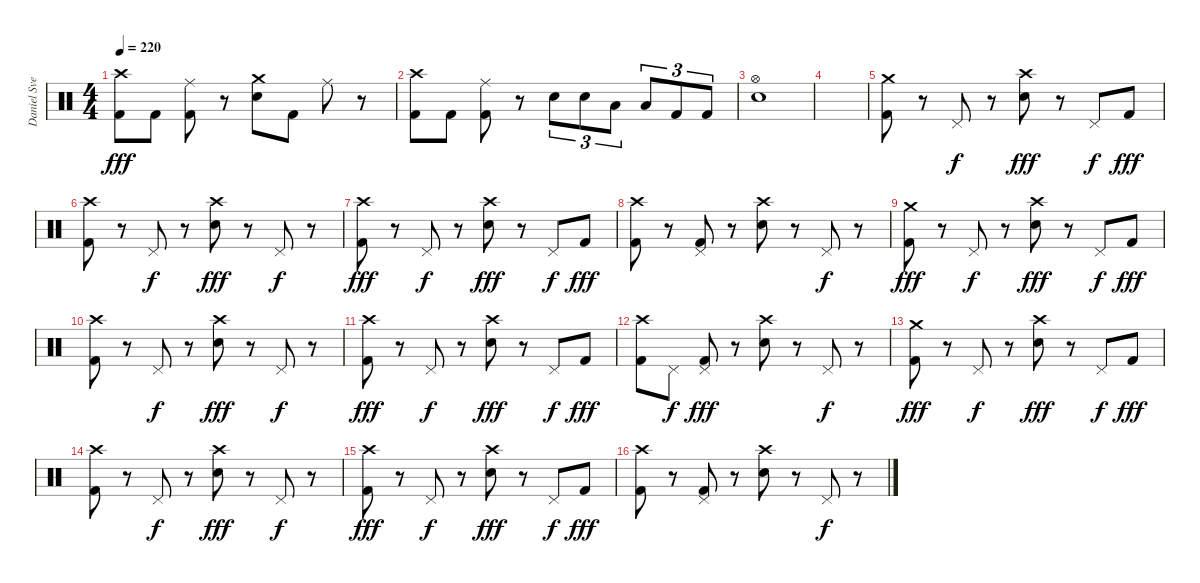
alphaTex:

\track ("Daniel Svensson" "Daniel Sve") {instrument percussion}
\staff {score}
\articulation defaults
\ts (4 4)
\tempo 220
\clef neutral
\ks c
("Crash high (hit)" "Kick (hit) 2").8{dy fff} "Kick (hit) 2".8 ("Ride (middle)" "Kick (hit) 2").8 r.8 ("Crash medium (hit)" "Electric Snare (hit)").8 "Kick (hit) 2".8 "Ride (middle)".8 r.8 |
("Crash high (hit)" "Kick (hit) 2").8 "Kick (hit) 2".8 ("Ride (middle)" "Kick (hit) 2").8 r.8 "Electric Snare (hit)".8{tu (3 2)} "Electric Snare (hit)".8{tu (3 2)} "Low Floor Tom (hit)".8{tu (3 2)} "Low Floor Tom (hit)".8{tu (3 2)} "Kick (hit) 2".8{tu (3 2)} "Kick (hit) 2".8{tu (3 2)} |
("Hi-Hat (open)" "Electric Snare (hit)").1 |
|
("Crash medium (hit)" "Kick (hit) 2").8 r.8 "Pedal Hi-Hat (hit)".8{dy f} r.8 ("Crash high (hit)" "Electric Snare (hit)").8{dy fff} r.8 "Pedal Hi-Hat (hit)".8{dy f} "Kick (hit) 2".8{dy fff} |
("Crash high (hit)" "Kick (hit) 2").8 r.8 "Pedal Hi-Hat (hit)".8{dy f} r.8 ("Crash high (hit)" "Electric Snare (hit)").8{dy fff} r.8 "Pedal Hi-Hat (hit)".8{dy f} r.8 |
("Crash high (hit)" "Kick (hit) 2").8{dy fff} r.8 "Pedal Hi-Hat (hit)".8{dy f} r.8 ("Crash high (hit)" "Electric Snare (hit)").8{dy fff} r.8 "Pedal Hi-Hat (hit)".8{dy f} "Kick (hit) 2".8{dy fff} |
("Crash high (hit)" "Kick (hit) 2").8 r.8 ("Pedal Hi-Hat (hit)" "Kick (hit) 2").8 r.8 ("Crash high (hit)" "Electric Snare (hit)").8 r.8 "Pedal Hi-Hat (hit)".8{dy f} r.8 |
("Crash medium (hit)" "Kick (hit) 2").8{dy fff} r.8 "Pedal Hi-Hat (hit)".8{dy f} r.8 ("Crash high (hit)" "Electric Snare (hit)").8{dy fff} r.8 "Pedal Hi-Hat (hit)".8{dy f} "Kick (hit) 2".8{dy fff} |
("Crash high (hit)" "Kick (hit) 2").8 r.8 "Pedal Hi-Hat (hit)".8{dy f} r.8 ("Crash high (hit)" "Electric Snare (hit)").8{dy fff} r.8 "Pedal Hi-Hat (hit)".8{dy f} r.8 |
("Crash high (hit)" "Kick (hit) 2").8{dy fff} r.8 "Pedal Hi-Hat (hit)".8{dy f} r.8 ("Crash high (hit)" "Electric Snare (hit)").8{dy fff} r.8 "Pedal Hi-Hat (hit)".8{dy f} "Kick (hit) 2".8{dy fff} |
("Crash high (hit)" "Kick (hit) 2").8 "Pedal Hi-Hat (hit)".8{dy f} ("Pedal Hi-Hat (hit)" "Kick (hit) 2").8{dy fff} r.8 ("Crash high (hit)" "Electric Snare (hit)").8 r.8 "Pedal Hi-Hat (hit)".8{dy f} r.8 |
("Crash medium (hit)" "Kick (hit) 2").8{dy fff} r.8 "Pedal Hi-Hat (hit)".8{dy f} r.8 ("Crash high (hit)" "Electric Snare (hit)").8{dy fff} r.8 "Pedal Hi-Hat (hit)".8{dy f} "Kick (hit) 2".8{dy fff} |
("Crash high (hit)" "Kick (hit) 2").8 r.8 "Pedal Hi-Hat (hit)".8{dy f} r.8 ("Crash high (hit)" "Electric Snare (hit)").8{dy fff} r.8 "Pedal Hi-Hat (hit)".8{dy f} r.8 |
("Crash high (hit)" "Kick (hit) 2").8{dy fff} r.8 "Pedal Hi-Hat (hit)".8{dy f} r.8 ("Crash high (hit)" "Electric Snare (hit)").8{dy fff} r.8 "Pedal Hi-Hat (hit)".8{dy f} "Kick (hit) 2".8{dy fff} |
("Crash high (hit)" "Kick (hit) 2").8 r.8 ("Pedal Hi-Hat (hit)" "Kick (hit) 2").8 r.8 ("Crash high (hit)" "Electric Snare (hit)").8 r.8 "Pedal Hi-Hat (hit)".8{dy f} r.8
